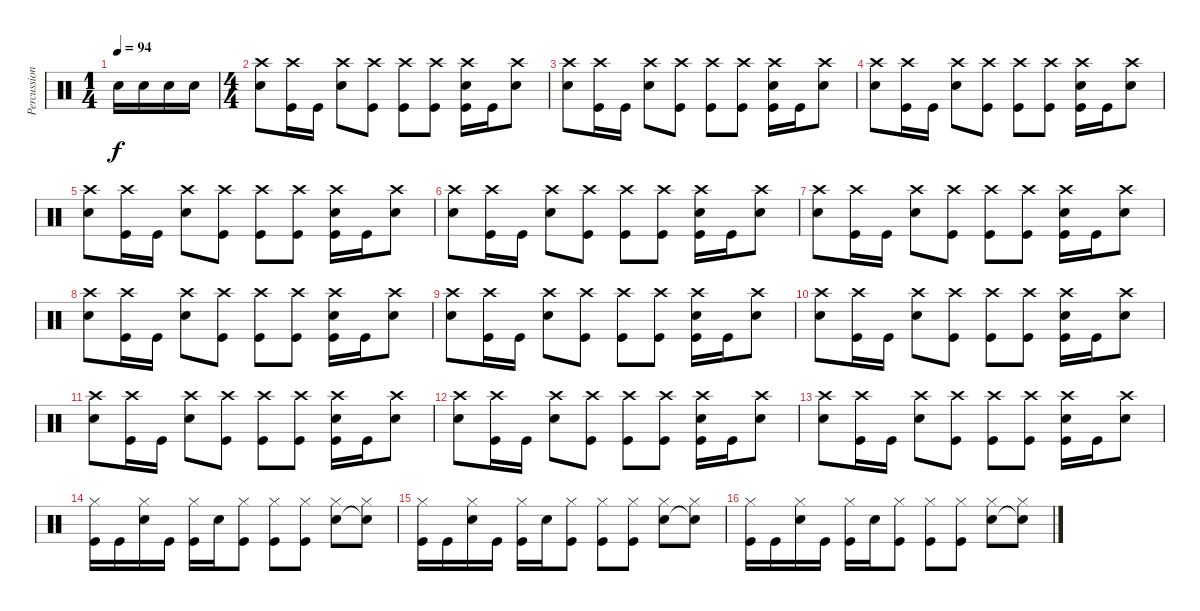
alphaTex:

\track ("Percussions" "Percussion") {instrument percussion}
\staff {score}
\articulation defaults
\ts (1 4)
\tempo 94
\clef neutral
\ks c "Electric Snare (hit)".16{dy f} "Electric Snare (hit)".16 "Electric Snare (hit)".16 "Electric Snare (hit)".16
|
\ts (4 4)
("Crash high (hit)" "Electric Snare (hit)").8 ("Crash high (hit)" "Kick (hit)").16 "Kick (hit)".16 ("Crash high (hit)" "Electric Snare (hit)").8 ("Crash high (hit)" "Kick (hit)").8 ("Crash high (hit)" "Kick (hit)").8 ("Crash high (hit)" "Kick (hit)").8 ("Crash high (hit)" "Electric Snare (hit)" "Kick (hit)").16 "Kick (hit)".16 ("Crash high (hit)" "Electric Snare (hit)").8 |
("Crash high (hit)" "Electric Snare (hit)").8 ("Crash high (hit)" "Kick (hit)").16 "Kick (hit)".16 ("Crash high (hit)" "Electric Snare (hit)").8 ("Crash high (hit)" "Kick (hit)").8 ("Crash high (hit)" "Kick (hit)").8 ("Crash high (hit)" "Kick (hit)").8 ("Crash high (hit)" "Electric Snare (hit)" "Kick (hit)").16 "Kick (hit)".16 ("Crash high (hit)" "Electric Snare (hit)").8 |
("Crash high (hit)" "Electric Snare (hit)").8 ("Crash high (hit)" "Kick (hit)").16 "Kick (hit)".16 ("Crash high (hit)" "Electric Snare (hit)").8 ("Crash high (hit)" "Kick (hit)").8 ("Crash high (hit)" "Kick (hit)").8 ("Crash high (hit)" "Kick (hit)").8 ("Crash high (hit)" "Electric Snare (hit)" "Kick (hit)").16 "Kick (hit)".16 ("Crash high (hit)" "Electric Snare (hit)").8 |
("Crash high (hit)" "Electric Snare (hit)").8 ("Crash high (hit)" "Kick (hit)").16 "Kick (hit)".16 ("Crash high (hit)" "Electric Snare (hit)").8 ("Crash high (hit)" "Kick (hit)").8 ("Crash high (hit)" "Kick (hit)").8 ("Crash high (hit)" "Kick (hit)").8 ("Crash high (hit)" "Electric Snare (hit)" "Kick (hit)").16 "Kick (hit)".16 ("Crash high (hit)" "Electric Snare (hit)").8 |
("Crash high (hit)" "Electric Snare (hit)").8 ("Crash high (hit)" "Kick (hit)").16 "Kick (hit)".16 ("Crash high (hit)" "Electric Snare (hit)").8 ("Crash high (hit)" "Kick (hit)").8 ("Crash high (hit)" "Kick (hit)").8 ("Crash high (hit)" "Kick (hit)").8 ("Crash high (hit)" "Electric Snare (hit)" "Kick (hit)").16 "Kick (hit)".16 ("Crash high (hit)" "Electric Snare (hit)").8 |
("Crash high (hit)" "Electric Snare (hit)").8 ("Crash high (hit)" "Kick (hit)").16 "Kick (hit)".16 ("Crash high (hit)" "Electric Snare (hit)").8 ("Crash high (hit)" "Kick (hit)").8 ("Crash high (hit)" "Kick (hit)").8 ("Crash high (hit)" "Kick (hit)").8 ("Crash high (hit)" "Electric Snare (hit)" "Kick (hit)").16 "Kick (hit)".16 ("Crash high (hit)" "Electric Snare (hit)").8 |
("Crash high (hit)" "Electric Snare (hit)").8 ("Crash high (hit)" "Kick (hit)").16 "Kick (hit)".16 ("Crash high (hit)" "Electric Snare (hit)").8 ("Crash high (hit)" "Kick (hit)").8 ("Crash high (hit)" "Kick (hit)").8 ("Crash high (hit)" "Kick (hit)").8 ("Crash high (hit)" "Electric Snare (hit)" "Kick (hit)").16 "Kick (hit)".16 ("Crash high (hit)" "Electric Snare (hit)").8 |
("Crash high (hit)" "Electric Snare (hit)").8 ("Crash high (hit)" "Kick (hit)").16 "Kick (hit)".16 ("Crash high (hit)" "Electric Snare (hit)").8 ("Crash high (hit)" "Kick (hit)").8 ("Crash high (hit)" "Kick (hit)").8 ("Crash high (hit)" "Kick (hit)").8 ("Crash high (hit)" "Electric Snare (hit)" "Kick (hit)").16 "Kick (hit)".16 ("Crash high (hit)" "Electric Snare (hit)").8 |
("Crash high (hit)" "Electric Snare (hit)").8 ("Crash high (hit)" "Kick (hit)").16 "Kick (hit)".16 ("Crash high (hit)" "Electric Snare (hit)").8 ("Crash high (hit)" "Kick (hit)").8 ("Crash high (hit)" "Kick (hit)").8 ("Crash high (hit)" "Kick (hit)").8 ("Crash high (hit)" "Electric Snare (hit)" "Kick (hit)").16 "Kick (hit)".16 ("Crash high (hit)" "Electric Snare (hit)").8 |
("Crash high (hit)" "Electric Snare (hit)").8 ("Crash high (hit)" "Kick (hit)").16 "Kick (hit)".16 ("Crash high (hit)" "Electric Snare (hit)").8 ("Crash high (hit)" "Kick (hit)").8 ("Crash high (hit)" "Kick (hit)").8 ("Crash high (hit)" "Kick (hit)").8 ("Crash high (hit)" "Electric Snare (hit)" "Kick (hit)").16 "Kick (hit)".16 ("Crash high (hit)" "Electric Snare (hit)").8 |
("Crash high (hit)" "Electric Snare (hit)").8 ("Crash high (hit)" "Kick (hit)").16 "Kick (hit)".16 ("Crash high (hit)" "Electric Snare (hit)").8 ("Crash high (hit)" "Kick (hit)").8 ("Crash high (hit)" "Kick (hit)").8 ("Crash high (hit)" "Kick (hit)").8 ("Crash high (hit)" "Electric Snare (hit)" "Kick (hit)").16 "Kick (hit)".16 ("Crash high (hit)" "Electric Snare (hit)").8 |
("Crash high (hit)" "Electric Snare (hit)").8 ("Crash high (hit)" "Kick (hit)").16 "Kick (hit)".16 ("Crash high (hit)" "Electric Snare (hit)").8 ("Crash high (hit)" "Kick (hit)").8 ("Crash high (hit)" "Kick (hit)").8 ("Crash high (hit)" "Kick (hit)").8 ("Crash high (hit)" "Electric Snare (hit)" "Kick (hit)").16 "Kick (hit)".16 ("Crash high (hit)" "Electric Snare (hit)").8 |
("Hi-Hat (closed)" "Kick (hit)").16 "Kick (hit)".16 ("Hi-Hat (closed)" "Electric Snare (hit)").16 "Kick (hit)".16 ("Hi-Hat (closed)" "Kick (hit)").16 "Electric Snare (hit)".16 ("Hi-Hat (closed)" "Kick (hit)").8 ("Hi-Hat (closed)" "Kick (hit)").8 ("Hi-Hat (closed)" "Kick (hit)").8 ("Hi-Hat (closed)" "Electric Snare (hit)").8 ("Hi-Hat (closed)" "Snare (hit)"{t}).8 |
("Hi-Hat (closed)" "Kick (hit)").16 "Kick (hit)".16 ("Hi-Hat (closed)" "Electric Snare (hit)").16 "Kick (hit)".16 ("Hi-Hat (closed)" "Kick (hit)").16 "Electric Snare (hit)".16 ("Hi-Hat (closed)" "Kick (hit)").8 ("Hi-Hat (closed)" "Kick (hit)").8 ("Hi-Hat (closed)" "Kick (hit)").8 ("Hi-Hat (closed)" "Electric Snare (hit)").8 ("Hi-Hat (closed)" "Snare (hit)"{t}).8 |
("Hi-Hat (closed)" "Kick (hit)").16 "Kick (hit)".16 ("Hi-Hat (closed)" "Electric Snare (hit)").16 "Kick (hit)".16 ("Hi-Hat (closed)" "Kick (hit)").16 "Electric Snare (hit)".16 ("Hi-Hat (closed)" "Kick (hit)").8 ("Hi-Hat (closed)" "Kick (hit)").8 ("Hi-Hat (closed)" "Kick (hit)").8 ("Hi-Hat (closed)" "Electric Snare (hit)").8 ("Hi-Hat (closed)" "Snare (hit)"{t}).8
